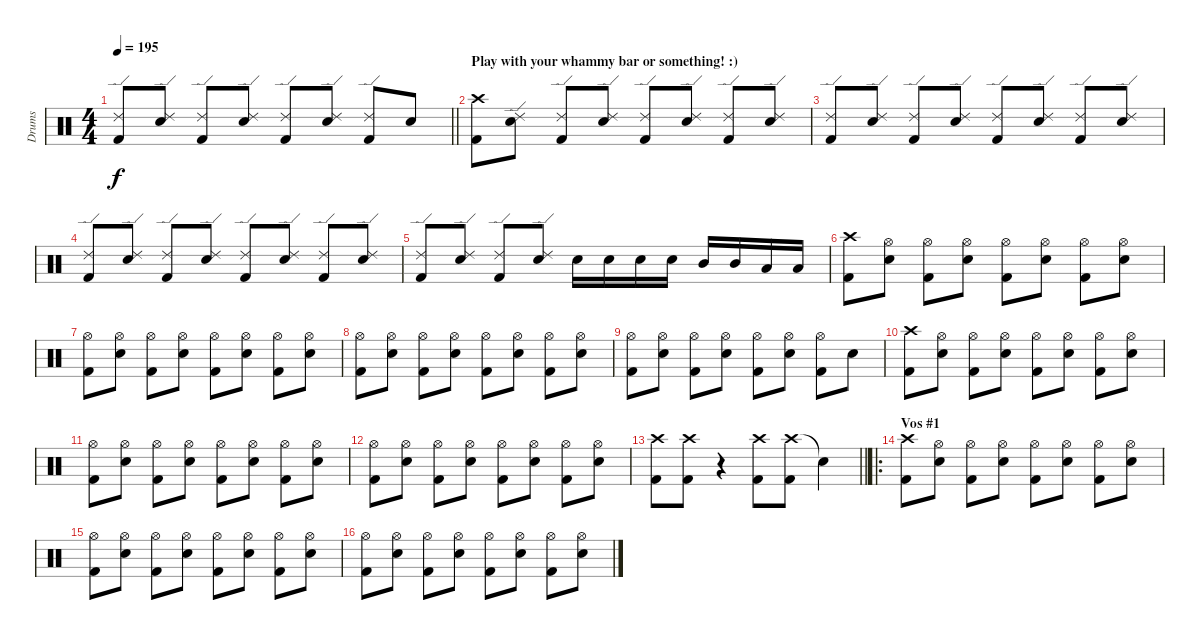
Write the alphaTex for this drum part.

\track ("Drums" "Drums") {instrument percussion}
\staff {score}
\articulation defaults
\ts (4 4)
\tempo 195
\clef neutral
\barLineRight lightlight
\ks c
("Ride (edge) 2" "Kick (hit) 2").8{dy f} ("Ride (edge) 2" "Snare (hit) 2").8 ("Ride (edge) 2" "Kick (hit) 2").8 ("Ride (edge) 2" "Snare (hit) 2").8 ("Ride (edge) 2" "Kick (hit) 2").8 ("Ride (edge) 2" "Snare (hit) 2").8 ("Ride (edge) 2" "Kick (hit) 2").8 "Snare (hit) 2".8 |
\section ("" "Play with your whammy bar or something! :)")
("Crash high (hit)" "Kick (hit) 2").8 ("Ride (edge) 2" "Snare (hit) 2").8 ("Ride (edge) 2" "Kick (hit) 2").8 ("Ride (edge) 2" "Snare (hit) 2").8 ("Ride (edge) 2" "Kick (hit) 2").8 ("Ride (edge) 2" "Snare (hit) 2").8 ("Ride (edge) 2" "Kick (hit) 2").8 ("Ride (edge) 2" "Snare (hit) 2").8 |
("Ride (edge) 2" "Kick (hit) 2").8 ("Ride (edge) 2" "Snare (hit) 2").8 ("Ride (edge) 2" "Kick (hit) 2").8 ("Ride (edge) 2" "Snare (hit) 2").8 ("Ride (edge) 2" "Kick (hit) 2").8 ("Ride (edge) 2" "Snare (hit) 2").8 ("Ride (edge) 2" "Kick (hit) 2").8 ("Ride (edge) 2" "Snare (hit) 2").8 |
("Ride (edge) 2" "Kick (hit) 2").8 ("Ride (edge) 2" "Snare (hit) 2").8 ("Ride (edge) 2" "Kick (hit) 2").8 ("Ride (edge) 2" "Snare (hit) 2").8 ("Ride (edge) 2" "Kick (hit) 2").8 ("Ride (edge) 2" "Snare (hit) 2").8 ("Ride (edge) 2" "Kick (hit) 2").8 ("Ride (edge) 2" "Snare (hit) 2").8 |
("Ride (edge) 2" "Kick (hit) 2").8 ("Ride (edge) 2" "Snare (hit) 2").8 ("Ride (edge) 2" "Kick (hit) 2").8 ("Ride (edge) 2" "Snare (hit) 2").8 "Snare (hit) 2".16 "Snare (hit) 2".16 "Snare (hit) 2".16 "Snare (hit) 2".16 "Mid Tom (hit)".16 "Mid Tom (hit)".16 "Low Tom (hit)".16 "Low Tom (hit)".16 |
("Crash high (hit)" "Kick (hit) 2").8 ("Hi-Hat (open)" "Snare (hit) 2").8 ("Hi-Hat (open)" "Kick (hit) 2").8 ("Hi-Hat (open)" "Snare (hit) 2").8 ("Hi-Hat (open)" "Kick (hit) 2").8 ("Hi-Hat (open)" "Snare (hit) 2").8 ("Hi-Hat (open)" "Kick (hit) 2").8 ("Hi-Hat (open)" "Snare (hit) 2").8 |
("Hi-Hat (open)" "Kick (hit) 2").8 ("Hi-Hat (open)" "Snare (hit) 2").8 ("Hi-Hat (open)" "Kick (hit) 2").8 ("Hi-Hat (open)" "Snare (hit) 2").8 ("Hi-Hat (open)" "Kick (hit) 2").8 ("Hi-Hat (open)" "Snare (hit) 2").8 ("Hi-Hat (open)" "Kick (hit) 2").8 ("Hi-Hat (open)" "Snare (hit) 2").8 |
("Hi-Hat (open)" "Kick (hit) 2").8 ("Hi-Hat (open)" "Snare (hit) 2").8 ("Hi-Hat (open)" "Kick (hit) 2").8 ("Hi-Hat (open)" "Snare (hit) 2").8 ("Hi-Hat (open)" "Kick (hit) 2").8 ("Hi-Hat (open)" "Snare (hit) 2").8 ("Hi-Hat (open)" "Kick (hit) 2").8 ("Hi-Hat (open)" "Snare (hit) 2").8 |
("Hi-Hat (open)" "Kick (hit) 2").8 ("Hi-Hat (open)" "Snare (hit) 2").8 ("Hi-Hat (open)" "Kick (hit) 2").8 ("Hi-Hat (open)" "Snare (hit) 2").8 ("Hi-Hat (open)" "Kick (hit) 2").8 ("Hi-Hat (open)" "Snare (hit) 2").8 ("Hi-Hat (open)" "Kick (hit) 2").8 "Snare (hit) 2".8 |
("Crash high (hit)" "Kick (hit) 2").8 ("Hi-Hat (open)" "Snare (hit) 2").8 ("Hi-Hat (open)" "Kick (hit) 2").8 ("Hi-Hat (open)" "Snare (hit) 2").8 ("Hi-Hat (open)" "Kick (hit) 2").8 ("Hi-Hat (open)" "Snare (hit) 2").8 ("Hi-Hat (open)" "Kick (hit) 2").8 ("Hi-Hat (open)" "Snare (hit) 2").8 |
("Hi-Hat (open)" "Kick (hit) 2").8 ("Hi-Hat (open)" "Snare (hit) 2").8 ("Hi-Hat (open)" "Kick (hit) 2").8 ("Hi-Hat (open)" "Snare (hit) 2").8 ("Hi-Hat (open)" "Kick (hit) 2").8 ("Hi-Hat (open)" "Snare (hit) 2").8 ("Hi-Hat (open)" "Kick (hit) 2").8 ("Hi-Hat (open)" "Snare (hit) 2").8 |
("Hi-Hat (open)" "Kick (hit) 2").8 ("Hi-Hat (open)" "Snare (hit) 2").8 ("Hi-Hat (open)" "Kick (hit) 2").8 ("Hi-Hat (open)" "Snare (hit) 2").8 ("Hi-Hat (open)" "Kick (hit) 2").8 ("Hi-Hat (open)" "Snare (hit) 2").8 ("Hi-Hat (open)" "Kick (hit) 2").8 ("Hi-Hat (open)" "Snare (hit) 2").8 |
\barLineRight lightlight
("Crash high (hit)" "Kick (hit) 2").8 ("Crash high (hit)" "Kick (hit) 2").8 r.4 ("Crash high (hit)" "Kick (hit) 2").8 ("Crash high (hit)" "Kick (hit) 2").8 "Snare (hit)"{t}.4 |
\ro
\section ("" "Vos #1")
("Crash high (hit)" "Kick (hit) 2").8 ("Hi-Hat (open)" "Snare (hit) 2").8 ("Hi-Hat (open)" "Kick (hit) 2").8 ("Hi-Hat (open)" "Snare (hit) 2").8 ("Hi-Hat (open)" "Kick (hit) 2").8 ("Hi-Hat (open)" "Snare (hit) 2").8 ("Hi-Hat (open)" "Kick (hit) 2").8 ("Hi-Hat (open)" "Snare (hit) 2").8 |
("Hi-Hat (open)" "Kick (hit) 2").8 ("Hi-Hat (open)" "Snare (hit) 2").8 ("Hi-Hat (open)" "Kick (hit) 2").8 ("Hi-Hat (open)" "Snare (hit) 2").8 ("Hi-Hat (open)" "Kick (hit) 2").8 ("Hi-Hat (open)" "Snare (hit) 2").8 ("Hi-Hat (open)" "Kick (hit) 2").8 ("Hi-Hat (open)" "Snare (hit) 2").8 |
("Hi-Hat (open)" "Kick (hit) 2").8 ("Hi-Hat (open)" "Snare (hit) 2").8 ("Hi-Hat (open)" "Kick (hit) 2").8 ("Hi-Hat (open)" "Snare (hit) 2").8 ("Hi-Hat (open)" "Kick (hit) 2").8 ("Hi-Hat (open)" "Snare (hit) 2").8 ("Hi-Hat (open)" "Kick (hit) 2").8 ("Hi-Hat (open)" "Snare (hit) 2").8
